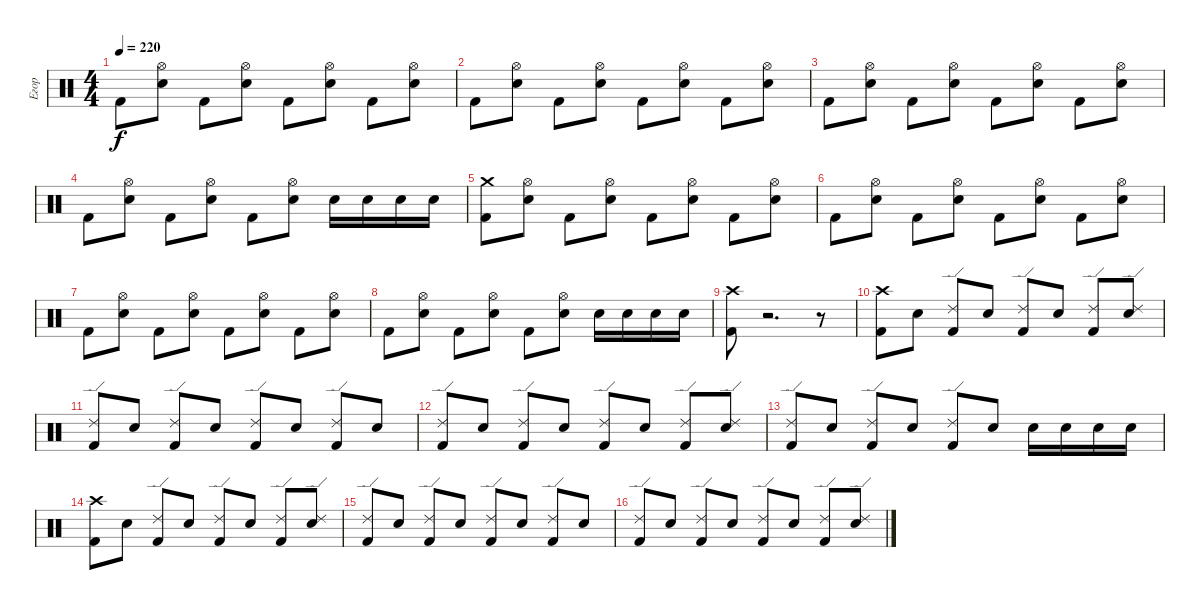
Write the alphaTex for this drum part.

\track ("Егор" "Егор") {instrument percussion}
\staff {score}
\articulation defaults
\ts (4 4)
\tempo 220
\clef neutral
\ks c "Kick (hit) 2".8{dy f}
("Hi-Hat (open)" "Snare (hit) 2").8 "Kick (hit) 2".8 ("Hi-Hat (open)" "Snare (hit) 2").8 "Kick (hit) 2".8 ("Hi-Hat (open)" "Snare (hit) 2").8 "Kick (hit) 2".8 ("Hi-Hat (open)" "Snare (hit) 2").8 |
"Kick (hit) 2".8 ("Hi-Hat (open)" "Snare (hit) 2").8 "Kick (hit) 2".8 ("Hi-Hat (open)" "Snare (hit) 2").8 "Kick (hit) 2".8 ("Hi-Hat (open)" "Snare (hit) 2").8 "Kick (hit) 2".8 ("Hi-Hat (open)" "Snare (hit) 2").8 |
"Kick (hit) 2".8 ("Hi-Hat (open)" "Snare (hit) 2").8 "Kick (hit) 2".8 ("Hi-Hat (open)" "Snare (hit) 2").8 "Kick (hit) 2".8 ("Hi-Hat (open)" "Snare (hit) 2").8 "Kick (hit) 2".8 ("Hi-Hat (open)" "Snare (hit) 2").8 |
"Kick (hit) 2".8 ("Hi-Hat (open)" "Snare (hit) 2").8 "Kick (hit) 2".8 ("Hi-Hat (open)" "Snare (hit) 2").8 "Kick (hit) 2".8 ("Hi-Hat (open)" "Snare (hit) 2").8 "Snare (hit) 2".16 "Snare (hit) 2".16 "Snare (hit) 2".16 "Snare (hit) 2".16 |
("Crash medium (hit)" "Kick (hit) 2").8 ("Hi-Hat (open)" "Snare (hit) 2").8 "Kick (hit) 2".8 ("Hi-Hat (open)" "Snare (hit) 2").8 "Kick (hit) 2".8 ("Hi-Hat (open)" "Snare (hit) 2").8 "Kick (hit) 2".8 ("Hi-Hat (open)" "Snare (hit) 2").8 |
"Kick (hit) 2".8 ("Hi-Hat (open)" "Snare (hit) 2").8 "Kick (hit) 2".8 ("Hi-Hat (open)" "Snare (hit) 2").8 "Kick (hit) 2".8 ("Hi-Hat (open)" "Snare (hit) 2").8 "Kick (hit) 2".8 ("Hi-Hat (open)" "Snare (hit) 2").8 |
"Kick (hit) 2".8 ("Hi-Hat (open)" "Snare (hit) 2").8 "Kick (hit) 2".8 ("Hi-Hat (open)" "Snare (hit) 2").8 "Kick (hit) 2".8 ("Hi-Hat (open)" "Snare (hit) 2").8 "Kick (hit) 2".8 ("Hi-Hat (open)" "Snare (hit) 2").8 |
"Kick (hit) 2".8 ("Hi-Hat (open)" "Snare (hit) 2").8 "Kick (hit) 2".8 ("Hi-Hat (open)" "Snare (hit) 2").8 "Kick (hit) 2".8 ("Hi-Hat (open)" "Snare (hit) 2").8 "Snare (hit) 2".16 "Snare (hit) 2".16 "Snare (hit) 2".16 "Snare (hit) 2".16 |
("Crash high (hit)" "Kick (hit) 2").8 r.2{d} r.8 |
("Crash high (hit)" "Kick (hit) 2").8 "Snare (hit) 2".8 ("Ride (edge) 2" "Kick (hit) 2").8 "Snare (hit) 2".8 ("Ride (edge) 2" "Kick (hit) 2").8 "Snare (hit) 2".8 ("Ride (edge) 2" "Kick (hit) 2").8 ("Ride (edge) 2" "Snare (hit) 2").8 |
("Ride (edge) 2" "Kick (hit) 2").8 "Snare (hit) 2".8 ("Ride (edge) 2" "Kick (hit) 2").8 "Snare (hit) 2".8 ("Ride (edge) 2" "Kick (hit) 2").8 "Snare (hit) 2".8 ("Ride (edge) 2" "Kick (hit) 2").8 "Snare (hit) 2".8 |
("Ride (edge) 2" "Kick (hit) 2").8 "Snare (hit) 2".8 ("Ride (edge) 2" "Kick (hit) 2").8 "Snare (hit) 2".8 ("Ride (edge) 2" "Kick (hit) 2").8 "Snare (hit) 2".8 ("Ride (edge) 2" "Kick (hit) 2").8 ("Ride (edge) 2" "Snare (hit) 2").8 |
("Ride (edge) 2" "Kick (hit) 2").8 "Snare (hit) 2".8 ("Ride (edge) 2" "Kick (hit) 2").8 "Snare (hit) 2".8 ("Ride (edge) 2" "Kick (hit) 2").8 "Snare (hit) 2".8 "Snare (hit) 2".16 "Snare (hit) 2".16 "Snare (hit) 2".16 "Snare (hit) 2".16 |
("Crash high (hit)" "Kick (hit) 2").8 "Snare (hit) 2".8 ("Ride (edge) 2" "Kick (hit) 2").8 "Snare (hit) 2".8 ("Ride (edge) 2" "Kick (hit) 2").8 "Snare (hit) 2".8 ("Ride (edge) 2" "Kick (hit) 2").8 ("Ride (edge) 2" "Snare (hit) 2").8 |
("Ride (edge) 2" "Kick (hit) 2").8 "Snare (hit) 2".8 ("Ride (edge) 2" "Kick (hit) 2").8 "Snare (hit) 2".8 ("Ride (edge) 2" "Kick (hit) 2").8 "Snare (hit) 2".8 ("Ride (edge) 2" "Kick (hit) 2").8 "Snare (hit) 2".8 |
("Ride (edge) 2" "Kick (hit) 2").8 "Snare (hit) 2".8 ("Ride (edge) 2" "Kick (hit) 2").8 "Snare (hit) 2".8 ("Ride (edge) 2" "Kick (hit) 2").8 "Snare (hit) 2".8 ("Ride (edge) 2" "Kick (hit) 2").8 ("Ride (edge) 2" "Snare (hit) 2").8
